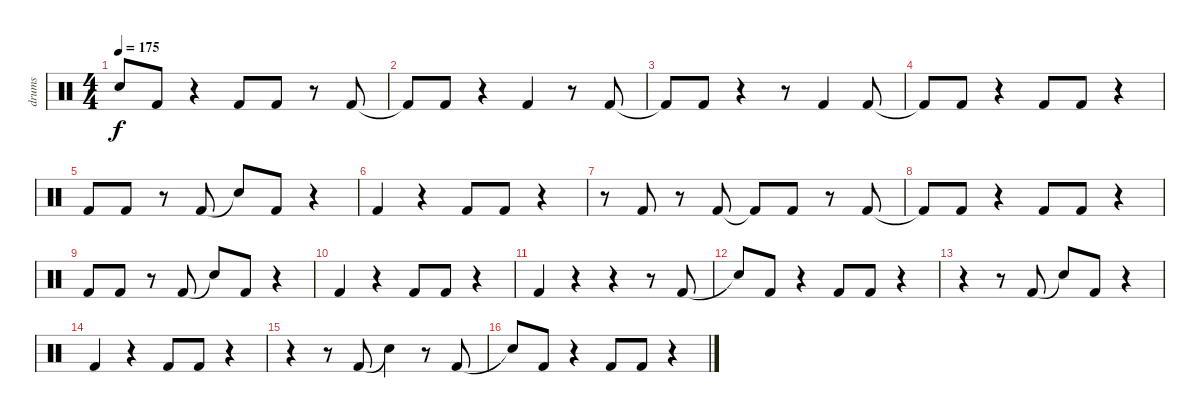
\track ("drums" "drums") {instrument percussion}
\staff {score}
\articulation defaults
\ts (4 4)
\tempo 175
\clef neutral
\ks c "Snare (hit)"{t}.8{dy f} "Kick (hit) 2".8
r.4 "Kick (hit) 2".8 "Kick (hit) 2".8 r.8 "Kick (hit) 2".8 |
"Kick (hit) 2"{t}.8 "Kick (hit) 2".8 r.4 "Kick (hit) 2".4 r.8 "Kick (hit) 2".8 |
"Kick (hit) 2"{t}.8 "Kick (hit) 2".8 r.4 r.8 "Kick (hit) 2".4 "Kick (hit) 2".8 |
"Kick (hit) 2"{t}.8 "Kick (hit) 2".8 r.4 "Kick (hit) 2".8 "Kick (hit) 2".8 r.4 |
"Kick (hit) 2".8 "Kick (hit) 2".8 r.8 "Kick (hit) 2".8 "Snare (hit)"{t}.8 "Kick (hit) 2".8 r.4 |
"Kick (hit) 2".4 r.4 "Kick (hit) 2".8 "Kick (hit) 2".8 r.4 |
r.8 "Kick (hit) 2".8 r.8 "Kick (hit) 2".8 "Kick (hit) 2"{t}.8 "Kick (hit) 2".8 r.8 "Kick (hit) 2".8 |
"Kick (hit) 2"{t}.8 "Kick (hit) 2".8 r.4 "Kick (hit) 2".8 "Kick (hit) 2".8 r.4 |
"Kick (hit) 2".8 "Kick (hit) 2".8 r.8 "Kick (hit) 2".8 "Snare (hit)"{t}.8 "Kick (hit) 2".8 r.4 |
"Kick (hit) 2".4 r.4 "Kick (hit) 2".8 "Kick (hit) 2".8 r.4 |
"Kick (hit) 2".4 r.4 r.4 r.8 "Kick (hit) 2".8 |
"Snare (hit)"{t}.8 "Kick (hit) 2".8 r.4 "Kick (hit) 2".8 "Kick (hit) 2".8 r.4 |
r.4 r.8 "Kick (hit) 2".8 "Snare (hit)"{t}.8 "Kick (hit) 2".8 r.4 |
"Kick (hit) 2".4 r.4 "Kick (hit) 2".8 "Kick (hit) 2".8 r.4 |
r.4 r.8 "Kick (hit) 2".8 "Snare (hit)"{t}.4 r.8 "Kick (hit) 2".8 |
"Snare (hit)"{t}.8 "Kick (hit) 2".8 r.4 "Kick (hit) 2".8 "Kick (hit) 2".8 r.4
